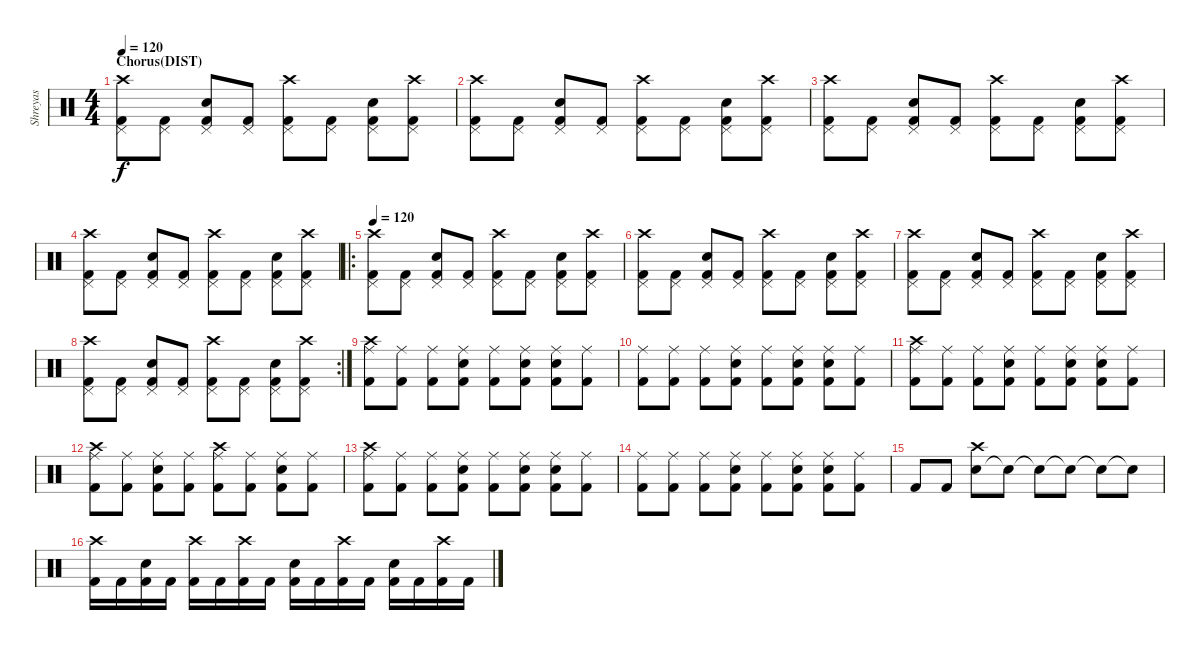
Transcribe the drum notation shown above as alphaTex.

\track ("Shreyas" "Shreyas") {instrument percussion}
\staff {score}
\articulation defaults
\ts (4 4)
\section ("" "Chorus(DIST)")
\tempo 120
\clef neutral
\ks c
("Crash high (hit)" "Kick (hit) 2" "Pedal Hi-Hat (hit)").8{dy f} ("Kick (hit) 2" "Pedal Hi-Hat (hit)").8 ("Snare (hit) 2" "Kick (hit) 2" "Pedal Hi-Hat (hit)").8 ("Kick (hit) 2" "Pedal Hi-Hat (hit)").8 ("Crash high (hit)" "Kick (hit) 2" "Pedal Hi-Hat (hit)").8 ("Kick (hit) 2" "Pedal Hi-Hat (hit)").8 ("Snare (hit) 2" "Kick (hit) 2" "Pedal Hi-Hat (hit)").8 ("Crash high (hit)" "Kick (hit) 2" "Pedal Hi-Hat (hit)").8 |
("Crash high (hit)" "Kick (hit) 2" "Pedal Hi-Hat (hit)").8 ("Kick (hit) 2" "Pedal Hi-Hat (hit)").8 ("Snare (hit) 2" "Kick (hit) 2" "Pedal Hi-Hat (hit)").8 ("Kick (hit) 2" "Pedal Hi-Hat (hit)").8 ("Crash high (hit)" "Kick (hit) 2" "Pedal Hi-Hat (hit)").8 ("Kick (hit) 2" "Pedal Hi-Hat (hit)").8 ("Snare (hit) 2" "Kick (hit) 2" "Pedal Hi-Hat (hit)").8 ("Crash high (hit)" "Kick (hit) 2" "Pedal Hi-Hat (hit)").8 |
("Crash high (hit)" "Kick (hit) 2" "Pedal Hi-Hat (hit)").8 ("Kick (hit) 2" "Pedal Hi-Hat (hit)").8 ("Snare (hit) 2" "Kick (hit) 2" "Pedal Hi-Hat (hit)").8 ("Kick (hit) 2" "Pedal Hi-Hat (hit)").8 ("Crash high (hit)" "Kick (hit) 2" "Pedal Hi-Hat (hit)").8 ("Kick (hit) 2" "Pedal Hi-Hat (hit)").8 ("Snare (hit) 2" "Kick (hit) 2" "Pedal Hi-Hat (hit)").8 ("Crash high (hit)" "Kick (hit) 2" "Pedal Hi-Hat (hit)").8 |
("Crash high (hit)" "Kick (hit) 2" "Pedal Hi-Hat (hit)").8 ("Kick (hit) 2" "Pedal Hi-Hat (hit)").8 ("Snare (hit) 2" "Kick (hit) 2" "Pedal Hi-Hat (hit)").8 ("Kick (hit) 2" "Pedal Hi-Hat (hit)").8 ("Crash high (hit)" "Kick (hit) 2" "Pedal Hi-Hat (hit)").8 ("Kick (hit) 2" "Pedal Hi-Hat (hit)").8 ("Snare (hit) 2" "Kick (hit) 2" "Pedal Hi-Hat (hit)").8 ("Crash high (hit)" "Kick (hit) 2" "Pedal Hi-Hat (hit)").8 |
\ro
\tempo 120
("Crash high (hit)" "Kick (hit) 2" "Pedal Hi-Hat (hit)").8 ("Kick (hit) 2" "Pedal Hi-Hat (hit)").8 ("Snare (hit) 2" "Kick (hit) 2" "Pedal Hi-Hat (hit)").8 ("Kick (hit) 2" "Pedal Hi-Hat (hit)").8 ("Crash high (hit)" "Kick (hit) 2" "Pedal Hi-Hat (hit)").8 ("Kick (hit) 2" "Pedal Hi-Hat (hit)").8 ("Snare (hit) 2" "Kick (hit) 2" "Pedal Hi-Hat (hit)").8 ("Crash high (hit)" "Kick (hit) 2" "Pedal Hi-Hat (hit)").8 |
("Crash high (hit)" "Kick (hit) 2" "Pedal Hi-Hat (hit)").8 ("Kick (hit) 2" "Pedal Hi-Hat (hit)").8 ("Snare (hit) 2" "Kick (hit) 2" "Pedal Hi-Hat (hit)").8 ("Kick (hit) 2" "Pedal Hi-Hat (hit)").8 ("Crash high (hit)" "Kick (hit) 2" "Pedal Hi-Hat (hit)").8 ("Kick (hit) 2" "Pedal Hi-Hat (hit)").8 ("Snare (hit) 2" "Kick (hit) 2" "Pedal Hi-Hat (hit)").8 ("Crash high (hit)" "Kick (hit) 2" "Pedal Hi-Hat (hit)").8 |
("Crash high (hit)" "Kick (hit) 2" "Pedal Hi-Hat (hit)").8 ("Kick (hit) 2" "Pedal Hi-Hat (hit)").8 ("Snare (hit) 2" "Kick (hit) 2" "Pedal Hi-Hat (hit)").8 ("Kick (hit) 2" "Pedal Hi-Hat (hit)").8 ("Crash high (hit)" "Kick (hit) 2" "Pedal Hi-Hat (hit)").8 ("Kick (hit) 2" "Pedal Hi-Hat (hit)").8 ("Snare (hit) 2" "Kick (hit) 2" "Pedal Hi-Hat (hit)").8 ("Crash high (hit)" "Kick (hit) 2" "Pedal Hi-Hat (hit)").8 |
\rc 2
("Crash high (hit)" "Kick (hit) 2" "Pedal Hi-Hat (hit)").8 ("Kick (hit) 2" "Pedal Hi-Hat (hit)").8 ("Snare (hit) 2" "Kick (hit) 2" "Pedal Hi-Hat (hit)").8 ("Kick (hit) 2" "Pedal Hi-Hat (hit)").8 ("Crash high (hit)" "Kick (hit) 2" "Pedal Hi-Hat (hit)").8 ("Kick (hit) 2" "Pedal Hi-Hat (hit)").8 ("Snare (hit) 2" "Kick (hit) 2" "Pedal Hi-Hat (hit)").8 ("Crash high (hit)" "Kick (hit) 2" "Pedal Hi-Hat (hit)").8 |
("Kick (hit) 2" "Crash high (hit)" "Ride (middle)").8 ("Kick (hit) 2" "Ride (middle)").8 ("Kick (hit) 2" "Ride (middle)").8 ("Kick (hit) 2" "Snare (hit) 2" "Ride (middle)").8 ("Kick (hit) 2" "Ride (middle)").8 ("Kick (hit) 2" "Snare (hit) 2" "Ride (middle)").8 ("Kick (hit) 2" "Snare (hit) 2" "Ride (middle)").8 ("Kick (hit) 2" "Ride (middle)").8 |
("Kick (hit) 2" "Ride (middle)").8 ("Kick (hit) 2" "Ride (middle)").8 ("Kick (hit) 2" "Ride (middle)").8 ("Kick (hit) 2" "Snare (hit) 2" "Ride (middle)").8 ("Kick (hit) 2" "Ride (middle)").8 ("Kick (hit) 2" "Snare (hit) 2" "Ride (middle)").8 ("Kick (hit) 2" "Snare (hit) 2" "Ride (middle)").8 ("Kick (hit) 2" "Ride (middle)").8 |
("Kick (hit) 2" "Crash high (hit)" "Ride (middle)").8 ("Kick (hit) 2" "Ride (middle)").8 ("Kick (hit) 2" "Ride (middle)").8 ("Kick (hit) 2" "Snare (hit) 2" "Ride (middle)").8 ("Kick (hit) 2" "Ride (middle)").8 ("Kick (hit) 2" "Snare (hit) 2" "Ride (middle)").8 ("Kick (hit) 2" "Snare (hit) 2" "Ride (middle)").8 ("Kick (hit) 2" "Ride (middle)").8 |
("Kick (hit) 2" "Crash high (hit)" "Ride (middle)").8 ("Kick (hit) 2" "Ride (middle)").8 ("Kick (hit) 2" "Snare (hit) 2" "Ride (middle)").8 ("Kick (hit) 2" "Ride (middle)").8 ("Kick (hit) 2" "Crash high (hit)" "Ride (middle)").8 ("Kick (hit) 2" "Ride (middle)").8 ("Kick (hit) 2" "Snare (hit) 2" "Ride (middle)").8 ("Kick (hit) 2" "Ride (middle)").8 |
("Kick (hit) 2" "Crash high (hit)" "Ride (middle)").8 ("Kick (hit) 2" "Ride (middle)").8 ("Kick (hit) 2" "Ride (middle)").8 ("Kick (hit) 2" "Snare (hit) 2" "Ride (middle)").8 ("Kick (hit) 2" "Ride (middle)").8 ("Kick (hit) 2" "Snare (hit) 2" "Ride (middle)").8 ("Kick (hit) 2" "Snare (hit) 2" "Ride (middle)").8 ("Kick (hit) 2" "Ride (middle)").8 |
("Kick (hit) 2" "Ride (middle)").8 ("Kick (hit) 2" "Ride (middle)").8 ("Kick (hit) 2" "Ride (middle)").8 ("Kick (hit) 2" "Snare (hit) 2" "Ride (middle)").8 ("Kick (hit) 2" "Ride (middle)").8 ("Kick (hit) 2" "Snare (hit) 2" "Ride (middle)").8 ("Kick (hit) 2" "Snare (hit) 2" "Ride (middle)").8 ("Kick (hit) 2" "Ride (middle)").8 |
"Kick (hit) 2".8 "Kick (hit) 2".8 ("Snare (hit) 2" "Crash high (hit)").8 "Snare (hit)"{t}.8 "Snare (hit)"{t}.8 "Snare (hit)"{t}.8 "Snare (hit)"{t}.8 "Snare (hit)"{t}.8 |
("Crash high (hit)" "Kick (hit) 2").16 "Kick (hit) 2".16 ("Snare (hit) 2" "Kick (hit) 2").16 "Kick (hit) 2".16 ("Crash high (hit)" "Kick (hit) 2").16 "Kick (hit) 2".16 ("Crash high (hit)" "Kick (hit) 2").16 "Kick (hit) 2".16 ("Snare (hit) 2" "Kick (hit) 2").16 "Kick (hit) 2".16 ("Crash high (hit)" "Kick (hit) 2").16 "Kick (hit) 2".16 ("Snare (hit) 2" "Kick (hit) 2").16 "Kick (hit) 2".16 ("Crash high (hit)" "Kick (hit) 2").16 "Kick (hit) 2".16
